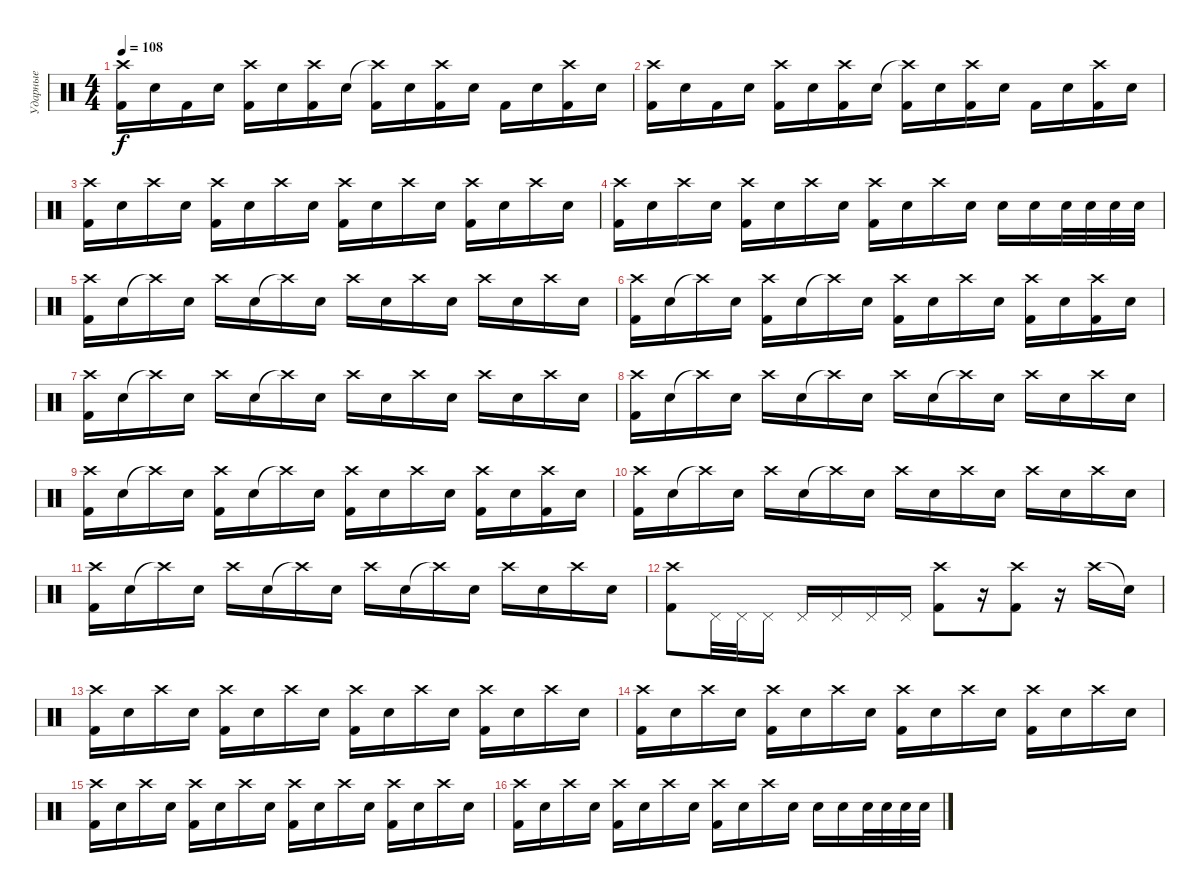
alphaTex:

\track ("Ударные" "Ударные") {instrument percussion}
\staff {score}
\articulation defaults
\ts (4 4)
\tempo 108
\clef neutral
\ks c
("Crash high (hit)" "Kick (hit) 2").16{dy f} "Electric Snare (hit)".16 "Kick (hit) 2".16 "Electric Snare (hit)".16 ("Crash high (hit)" "Kick (hit) 2").16 "Electric Snare (hit)".16 ("Crash high (hit)" "Kick (hit) 2").16 "Electric Snare (hit)".16 ("Crash high (hit)"{t} "Kick (hit) 2").16 "Electric Snare (hit)".16 ("Crash high (hit)" "Kick (hit) 2").16 "Electric Snare (hit)".16 "Kick (hit) 2".16 "Electric Snare (hit)".16 ("Crash high (hit)" "Kick (hit) 2").16 "Electric Snare (hit)".16 |
("Crash high (hit)" "Kick (hit) 2").16 "Electric Snare (hit)".16 "Kick (hit) 2".16 "Electric Snare (hit)".16 ("Crash high (hit)" "Kick (hit) 2").16 "Electric Snare (hit)".16 ("Crash high (hit)" "Kick (hit) 2").16 "Electric Snare (hit)".16 ("Crash high (hit)"{t} "Kick (hit) 2").16 "Electric Snare (hit)".16 ("Crash high (hit)" "Kick (hit) 2").16 "Electric Snare (hit)".16 "Kick (hit) 2".16 "Electric Snare (hit)".16 ("Crash high (hit)" "Kick (hit) 2").16 "Electric Snare (hit)".16 |
("Crash high (hit)" "Kick (hit) 2").16 "Electric Snare (hit)".16 "Crash high (hit)".16 "Electric Snare (hit)".16 ("Crash high (hit)" "Kick (hit) 2").16 "Electric Snare (hit)".16 "Crash high (hit)".16 "Electric Snare (hit)".16 ("Crash high (hit)" "Kick (hit) 2").16 "Electric Snare (hit)".16 "Crash high (hit)".16 "Electric Snare (hit)".16 ("Crash high (hit)" "Kick (hit) 2").16 "Electric Snare (hit)".16 "Crash high (hit)".16 "Electric Snare (hit)".16 |
("Crash high (hit)" "Kick (hit) 2").16 "Electric Snare (hit)".16 "Crash high (hit)".16 "Electric Snare (hit)".16 ("Crash high (hit)" "Kick (hit) 2").16 "Electric Snare (hit)".16 "Crash high (hit)".16 "Electric Snare (hit)".16 ("Crash high (hit)" "Kick (hit) 2").16 "Electric Snare (hit)".16 "Crash high (hit)".16 "Electric Snare (hit)".16 "Electric Snare (hit)".16 "Electric Snare (hit)".16 "Electric Snare (hit)".32 "Electric Snare (hit)".32 "Electric Snare (hit)".32 "Electric Snare (hit)".32 |
("Crash high (hit)" "Kick (hit) 2").16 "Electric Snare (hit)".16 "Crash high (hit)"{t}.16 "Electric Snare (hit)".16 "Crash high (hit)".16 "Electric Snare (hit)".16 "Crash high (hit)"{t}.16 "Electric Snare (hit)".16 "Crash high (hit)".16 "Electric Snare (hit)".16 "Crash high (hit)".16 "Electric Snare (hit)".16 "Crash high (hit)".16 "Electric Snare (hit)".16 "Crash high (hit)".16 "Electric Snare (hit)".16 |
("Crash high (hit)" "Kick (hit) 2").16 "Electric Snare (hit)".16 "Crash high (hit)"{t}.16 "Electric Snare (hit)".16 ("Crash high (hit)" "Kick (hit) 2").16 "Electric Snare (hit)".16 "Crash high (hit)"{t}.16 "Electric Snare (hit)".16 ("Crash high (hit)" "Kick (hit) 2").16 "Electric Snare (hit)".16 "Crash high (hit)".16 "Electric Snare (hit)".16 ("Crash high (hit)" "Kick (hit) 2").16 "Electric Snare (hit)".16 ("Crash high (hit)" "Kick (hit) 2").16 "Electric Snare (hit)".16 |
("Crash high (hit)" "Kick (hit) 2").16 "Electric Snare (hit)".16 "Crash high (hit)"{t}.16 "Electric Snare (hit)".16 "Crash high (hit)".16 "Electric Snare (hit)".16 "Crash high (hit)"{t}.16 "Electric Snare (hit)".16 "Crash high (hit)".16 "Electric Snare (hit)".16 "Crash high (hit)".16 "Electric Snare (hit)".16 "Crash high (hit)".16 "Electric Snare (hit)".16 "Crash high (hit)".16 "Electric Snare (hit)".16 |
("Crash high (hit)" "Kick (hit) 2").16 "Electric Snare (hit)".16 "Crash high (hit)"{t}.16 "Electric Snare (hit)".16 "Crash high (hit)".16 "Electric Snare (hit)".16 "Crash high (hit)"{t}.16 "Electric Snare (hit)".16 "Crash high (hit)".16 "Electric Snare (hit)".16 "Crash high (hit)"{t}.16 "Electric Snare (hit)".16 "Crash high (hit)".16 "Electric Snare (hit)".16 "Crash high (hit)".16 "Electric Snare (hit)".16 |
("Crash high (hit)" "Kick (hit) 2").16 "Electric Snare (hit)".16 "Crash high (hit)"{t}.16 "Electric Snare (hit)".16 ("Crash high (hit)" "Kick (hit) 2").16 "Electric Snare (hit)".16 "Crash high (hit)"{t}.16 "Electric Snare (hit)".16 ("Crash high (hit)" "Kick (hit) 2").16 "Electric Snare (hit)".16 "Crash high (hit)".16 "Electric Snare (hit)".16 ("Crash high (hit)" "Kick (hit) 2").16 "Electric Snare (hit)".16 ("Crash high (hit)" "Kick (hit) 2").16 "Electric Snare (hit)".16 |
("Crash high (hit)" "Kick (hit) 2").16 "Electric Snare (hit)".16 "Crash high (hit)"{t}.16 "Electric Snare (hit)".16 "Crash high (hit)".16 "Electric Snare (hit)".16 "Crash high (hit)"{t}.16 "Electric Snare (hit)".16 "Crash high (hit)".16 "Electric Snare (hit)".16 "Crash high (hit)".16 "Electric Snare (hit)".16 "Crash high (hit)".16 "Electric Snare (hit)".16 "Crash high (hit)".16 "Electric Snare (hit)".16 |
("Crash high (hit)" "Kick (hit) 2").16 "Electric Snare (hit)".16 "Crash high (hit)"{t}.16 "Electric Snare (hit)".16 "Crash high (hit)".16 "Electric Snare (hit)".16 "Crash high (hit)"{t}.16 "Electric Snare (hit)".16 "Crash high (hit)".16 "Electric Snare (hit)".16 "Crash high (hit)"{t}.16 "Electric Snare (hit)".16 "Crash high (hit)".16 "Electric Snare (hit)".16 "Crash high (hit)".16 "Electric Snare (hit)".16 |
("Crash high (hit)" "Kick (hit) 2").8 "Pedal Hi-Hat (hit)".32 "Pedal Hi-Hat (hit)".32 "Pedal Hi-Hat (hit)".16 "Pedal Hi-Hat (hit)".16 "Pedal Hi-Hat (hit)".16 "Pedal Hi-Hat (hit)".16 "Pedal Hi-Hat (hit)".16 ("Crash high (hit)" "Kick (hit) 2").8 r.16 ("Crash high (hit)" "Kick (hit) 2").8 r.16 "Crash high (hit)".16 "Snare (hit)"{t}.16 |
("Crash high (hit)" "Kick (hit) 2").16 "Electric Snare (hit)".16 "Crash high (hit)".16 "Electric Snare (hit)".16 ("Crash high (hit)" "Kick (hit) 2").16 "Electric Snare (hit)".16 "Crash high (hit)".16 "Electric Snare (hit)".16 ("Crash high (hit)" "Kick (hit) 2").16 "Electric Snare (hit)".16 "Crash high (hit)".16 "Electric Snare (hit)".16 ("Crash high (hit)" "Kick (hit) 2").16 "Electric Snare (hit)".16 "Crash high (hit)".16 "Electric Snare (hit)".16 |
("Crash high (hit)" "Kick (hit) 2").16 "Electric Snare (hit)".16 "Crash high (hit)".16 "Electric Snare (hit)".16 ("Crash high (hit)" "Kick (hit) 2").16 "Electric Snare (hit)".16 "Crash high (hit)".16 "Electric Snare (hit)".16 ("Crash high (hit)" "Kick (hit) 2").16 "Electric Snare (hit)".16 "Crash high (hit)".16 "Electric Snare (hit)".16 ("Crash high (hit)" "Kick (hit) 2").16 "Electric Snare (hit)".16 "Crash high (hit)".16 "Electric Snare (hit)".16 |
("Crash high (hit)" "Kick (hit) 2").16 "Electric Snare (hit)".16 "Crash high (hit)".16 "Electric Snare (hit)".16 ("Crash high (hit)" "Kick (hit) 2").16 "Electric Snare (hit)".16 "Crash high (hit)".16 "Electric Snare (hit)".16 ("Crash high (hit)" "Kick (hit) 2").16 "Electric Snare (hit)".16 "Crash high (hit)".16 "Electric Snare (hit)".16 ("Crash high (hit)" "Kick (hit) 2").16 "Electric Snare (hit)".16 "Crash high (hit)".16 "Electric Snare (hit)".16 |
("Crash high (hit)" "Kick (hit) 2").16 "Electric Snare (hit)".16 "Crash high (hit)".16 "Electric Snare (hit)".16 ("Crash high (hit)" "Kick (hit) 2").16 "Electric Snare (hit)".16 "Crash high (hit)".16 "Electric Snare (hit)".16 ("Crash high (hit)" "Kick (hit) 2").16 "Electric Snare (hit)".16 "Crash high (hit)".16 "Electric Snare (hit)".16 "Electric Snare (hit)".16 "Electric Snare (hit)".16 "Electric Snare (hit)".32 "Electric Snare (hit)".32 "Electric Snare (hit)".32 "Electric Snare (hit)".32
